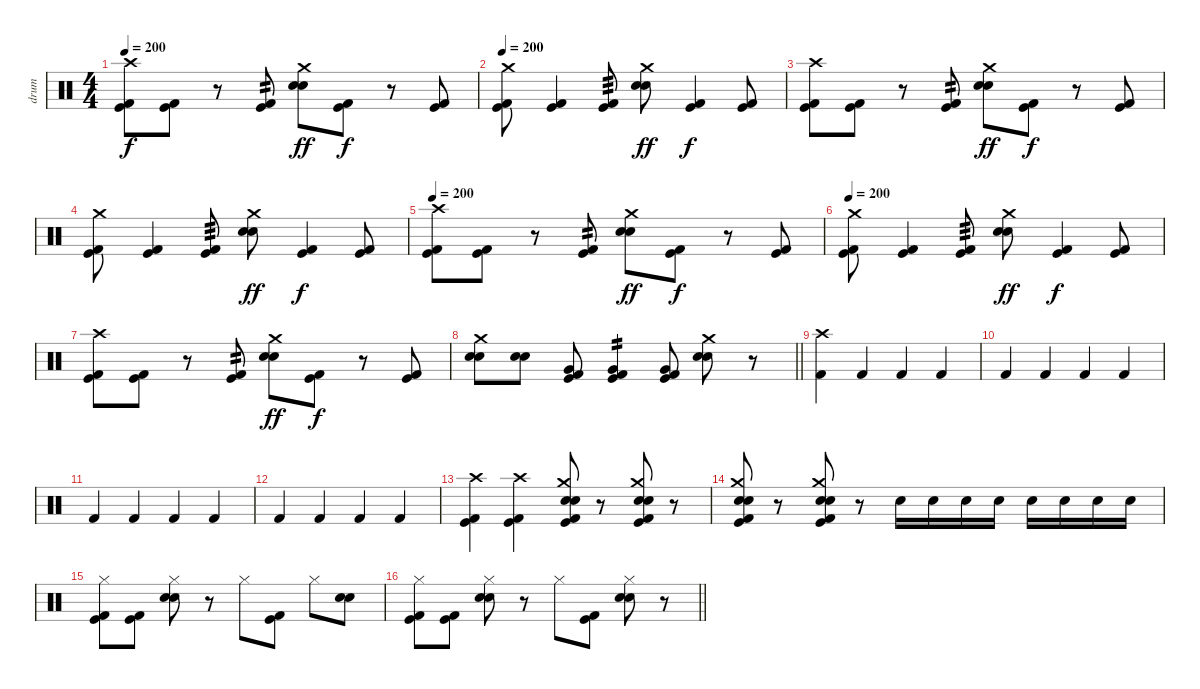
\track ("drum" "drum") {instrument percussion}
\staff {score}
\articulation defaults
\ts (4 4)
\tempo 200
\clef neutral
\ks c
("Crash high (hit)" "Kick (hit)" "Kick (hit) 2").8{dy f} ("Kick (hit)" "Kick (hit) 2").8 r.8 ("Kick (hit)" "Kick (hit) 2").8{tp 2} ("Crash medium (hit)" "Electric Snare (hit)" "Electric Snare (hit)").8{dy ff} ("Kick (hit)" "Kick (hit) 2").8{dy f} r.8 ("Kick (hit)" "Kick (hit) 2").8 |
\tempo 200
("Crash medium (hit)" "Kick (hit)" "Kick (hit) 2").8 ("Kick (hit)" "Kick (hit) 2").4 ("Kick (hit)" "Kick (hit) 2").8{tp 3} ("Crash medium (hit)" "Electric Snare (hit)" "Electric Snare (hit)").8{dy ff} ("Kick (hit)" "Kick (hit) 2").4{dy f} ("Kick (hit)" "Kick (hit) 2").8 |
("Crash high (hit)" "Kick (hit)" "Kick (hit) 2").8 ("Kick (hit)" "Kick (hit) 2").8 r.8 ("Kick (hit)" "Kick (hit) 2").8{tp 2} ("Crash medium (hit)" "Electric Snare (hit)" "Electric Snare (hit)").8{dy ff} ("Kick (hit)" "Kick (hit) 2").8{dy f} r.8 ("Kick (hit)" "Kick (hit) 2").8 |
("Crash medium (hit)" "Kick (hit)" "Kick (hit) 2").8 ("Kick (hit)" "Kick (hit) 2").4 ("Kick (hit)" "Kick (hit) 2").8{tp 3} ("Crash medium (hit)" "Electric Snare (hit)" "Electric Snare (hit)").8{dy ff} ("Kick (hit)" "Kick (hit) 2").4{dy f} ("Kick (hit)" "Kick (hit) 2").8 |
\tempo 200
("Crash high (hit)" "Kick (hit)" "Kick (hit) 2").8 ("Kick (hit)" "Kick (hit) 2").8 r.8 ("Kick (hit)" "Kick (hit) 2").8{tp 2} ("Crash medium (hit)" "Electric Snare (hit)" "Electric Snare (hit)").8{dy ff} ("Kick (hit)" "Kick (hit) 2").8{dy f} r.8 ("Kick (hit)" "Kick (hit) 2").8 |
\tempo 200
("Crash medium (hit)" "Kick (hit)" "Kick (hit) 2").8 ("Kick (hit)" "Kick (hit) 2").4 ("Kick (hit)" "Kick (hit) 2").8{tp 3} ("Crash medium (hit)" "Electric Snare (hit)" "Electric Snare (hit)").8{dy ff} ("Kick (hit)" "Kick (hit) 2").4{dy f} ("Kick (hit)" "Kick (hit) 2").8 |
("Crash high (hit)" "Kick (hit)" "Kick (hit) 2").8 ("Kick (hit)" "Kick (hit) 2").8 r.8 ("Kick (hit)" "Kick (hit) 2").8{tp 2} ("Crash medium (hit)" "Electric Snare (hit)" "Electric Snare (hit)").8{dy ff} ("Kick (hit)" "Kick (hit) 2").8{dy f} r.8 ("Kick (hit)" "Kick (hit) 2").8 |
\barLineRight lightlight
("Crash medium (hit)" "Electric Snare (hit)" "Electric Snare (hit)").8 ("Electric Snare (hit)" "Electric Snare (hit)").8 ("Very Low Tom (hit)" "Kick (hit)" "Kick (hit) 2").8 ("Very Low Tom (hit)" "Kick (hit)" "Kick (hit) 2").4{tp 2} ("Very Low Tom (hit)" "Kick (hit)" "Kick (hit) 2").8 ("Crash medium (hit)" "Electric Snare (hit)" "Electric Snare (hit)").8 r.8 |
\section ("" "")
("Crash high (hit)" "Kick (hit) 2").4 "Kick (hit) 2".4 "Kick (hit) 2".4 "Kick (hit) 2".4 |
"Kick (hit) 2".4 "Kick (hit) 2".4 "Kick (hit) 2".4 "Kick (hit) 2".4 |
"Kick (hit) 2".4 "Kick (hit) 2".4 "Kick (hit) 2".4 "Kick (hit) 2".4 |
"Kick (hit) 2".4 "Kick (hit) 2".4 "Kick (hit) 2".4 "Kick (hit) 2".4 |
("Crash high (hit)" "Kick (hit)" "Kick (hit) 2").4 ("Crash high (hit)" "Kick (hit)" "Kick (hit) 2").4 ("Crash medium (hit)" "Electric Snare (hit)" "Electric Snare (hit)" "Kick (hit)" "Kick (hit) 2").8 r.8 ("Crash medium (hit)" "Electric Snare (hit)" "Electric Snare (hit)" "Kick (hit)" "Kick (hit) 2").8 r.8 |
("Crash medium (hit)" "Electric Snare (hit)" "Electric Snare (hit)" "Kick (hit)" "Kick (hit) 2").8 r.8 ("Crash medium (hit)" "Electric Snare (hit)" "Electric Snare (hit)" "Kick (hit)" "Kick (hit) 2").8 r.8 "Electric Snare (hit)".16 "Electric Snare (hit)".16 "Electric Snare (hit)".16 "Electric Snare (hit)".16 "Electric Snare (hit)".16 "Electric Snare (hit)".16 "Electric Snare (hit)".16 "Electric Snare (hit)".16 |
("Hi-Hat (closed)" "Kick (hit)" "Kick (hit) 2").8 ("Kick (hit)" "Kick (hit) 2").8 ("Hi-Hat (closed)" "Electric Snare (hit)" "Electric Snare (hit)").8 r.8 "Hi-Hat (closed)".8 ("Kick (hit)" "Kick (hit) 2").8 "Hi-Hat (closed)".8 ("Electric Snare (hit)" "Electric Snare (hit)").8 |
\barLineRight lightlight
("Hi-Hat (closed)" "Kick (hit)" "Kick (hit) 2").8 ("Kick (hit)" "Kick (hit) 2").8 ("Hi-Hat (closed)" "Electric Snare (hit)" "Electric Snare (hit)").8 r.8 "Hi-Hat (closed)".8 ("Kick (hit)" "Kick (hit) 2").8 ("Hi-Hat (closed)" "Electric Snare (hit)" "Electric Snare (hit)").8 r.8
